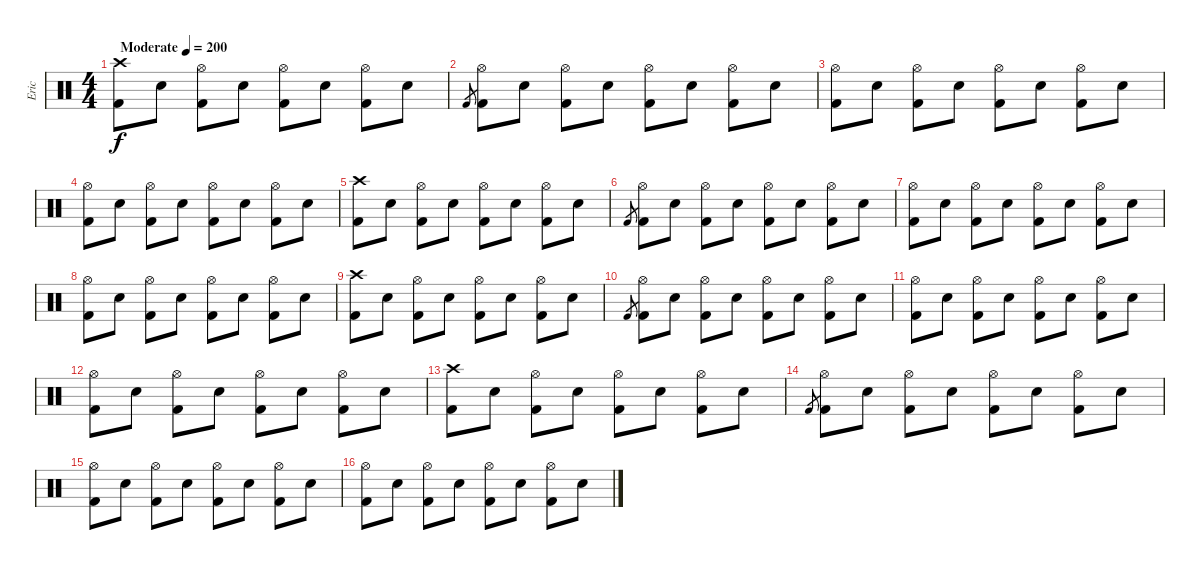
\track ("Eric" "Eric") {instrument percussion}
\staff {score}
\articulation defaults
\ts (4 4)
\tempo (200 "Moderate")
\clef neutral
\ks c
("Crash high (hit)" "Kick (hit) 2").8{dy f} "Electric Snare (hit)".8 ("Hi-Hat (open)" "Kick (hit) 2").8 "Electric Snare (hit)".8 ("Hi-Hat (open)" "Kick (hit) 2").8 "Electric Snare (hit)".8 ("Hi-Hat (open)" "Kick (hit) 2").8 "Electric Snare (hit)".8 |
"Kick (hit) 2".8{gr} ("Hi-Hat (open)" "Kick (hit) 2").8 "Electric Snare (hit)".8 ("Hi-Hat (open)" "Kick (hit) 2").8 "Electric Snare (hit)".8 ("Hi-Hat (open)" "Kick (hit) 2").8 "Electric Snare (hit)".8 ("Hi-Hat (open)" "Kick (hit) 2").8 "Electric Snare (hit)".8 |
("Hi-Hat (open)" "Kick (hit) 2").8 "Electric Snare (hit)".8 ("Hi-Hat (open)" "Kick (hit) 2").8 "Electric Snare (hit)".8 ("Hi-Hat (open)" "Kick (hit) 2").8 "Electric Snare (hit)".8 ("Hi-Hat (open)" "Kick (hit) 2").8 "Electric Snare (hit)".8 |
("Hi-Hat (open)" "Kick (hit) 2").8 "Electric Snare (hit)".8 ("Hi-Hat (open)" "Kick (hit) 2").8 "Electric Snare (hit)".8 ("Hi-Hat (open)" "Kick (hit) 2").8 "Electric Snare (hit)".8 ("Hi-Hat (open)" "Kick (hit) 2").8 "Electric Snare (hit)".8 |
("Crash high (hit)" "Kick (hit) 2").8 "Electric Snare (hit)".8 ("Hi-Hat (open)" "Kick (hit) 2").8 "Electric Snare (hit)".8 ("Hi-Hat (open)" "Kick (hit) 2").8 "Electric Snare (hit)".8 ("Hi-Hat (open)" "Kick (hit) 2").8 "Electric Snare (hit)".8 |
"Kick (hit) 2".8{gr} ("Hi-Hat (open)" "Kick (hit) 2").8 "Electric Snare (hit)".8 ("Hi-Hat (open)" "Kick (hit) 2").8 "Electric Snare (hit)".8 ("Hi-Hat (open)" "Kick (hit) 2").8 "Electric Snare (hit)".8 ("Hi-Hat (open)" "Kick (hit) 2").8 "Electric Snare (hit)".8 |
("Hi-Hat (open)" "Kick (hit) 2").8 "Electric Snare (hit)".8 ("Hi-Hat (open)" "Kick (hit) 2").8 "Electric Snare (hit)".8 ("Hi-Hat (open)" "Kick (hit) 2").8 "Electric Snare (hit)".8 ("Hi-Hat (open)" "Kick (hit) 2").8 "Electric Snare (hit)".8 |
("Hi-Hat (open)" "Kick (hit) 2").8 "Electric Snare (hit)".8 ("Hi-Hat (open)" "Kick (hit) 2").8 "Electric Snare (hit)".8 ("Hi-Hat (open)" "Kick (hit) 2").8 "Electric Snare (hit)".8 ("Hi-Hat (open)" "Kick (hit) 2").8 "Electric Snare (hit)".8 |
("Crash high (hit)" "Kick (hit) 2").8 "Electric Snare (hit)".8 ("Hi-Hat (open)" "Kick (hit) 2").8 "Electric Snare (hit)".8 ("Hi-Hat (open)" "Kick (hit) 2").8 "Electric Snare (hit)".8 ("Hi-Hat (open)" "Kick (hit) 2").8 "Electric Snare (hit)".8 |
"Kick (hit) 2".8{gr} ("Hi-Hat (open)" "Kick (hit) 2").8 "Electric Snare (hit)".8 ("Hi-Hat (open)" "Kick (hit) 2").8 "Electric Snare (hit)".8 ("Hi-Hat (open)" "Kick (hit) 2").8 "Electric Snare (hit)".8 ("Hi-Hat (open)" "Kick (hit) 2").8 "Electric Snare (hit)".8 |
("Hi-Hat (open)" "Kick (hit) 2").8 "Electric Snare (hit)".8 ("Hi-Hat (open)" "Kick (hit) 2").8 "Electric Snare (hit)".8 ("Hi-Hat (open)" "Kick (hit) 2").8 "Electric Snare (hit)".8 ("Hi-Hat (open)" "Kick (hit) 2").8 "Electric Snare (hit)".8 |
("Hi-Hat (open)" "Kick (hit) 2").8 "Electric Snare (hit)".8 ("Hi-Hat (open)" "Kick (hit) 2").8 "Electric Snare (hit)".8 ("Hi-Hat (open)" "Kick (hit) 2").8 "Electric Snare (hit)".8 ("Hi-Hat (open)" "Kick (hit) 2").8 "Electric Snare (hit)".8 |
("Crash high (hit)" "Kick (hit) 2").8 "Electric Snare (hit)".8 ("Hi-Hat (open)" "Kick (hit) 2").8 "Electric Snare (hit)".8 ("Hi-Hat (open)" "Kick (hit) 2").8 "Electric Snare (hit)".8 ("Hi-Hat (open)" "Kick (hit) 2").8 "Electric Snare (hit)".8 |
"Kick (hit) 2".8{gr} ("Hi-Hat (open)" "Kick (hit) 2").8 "Electric Snare (hit)".8 ("Hi-Hat (open)" "Kick (hit) 2").8 "Electric Snare (hit)".8 ("Hi-Hat (open)" "Kick (hit) 2").8 "Electric Snare (hit)".8 ("Hi-Hat (open)" "Kick (hit) 2").8 "Electric Snare (hit)".8 |
("Hi-Hat (open)" "Kick (hit) 2").8 "Electric Snare (hit)".8 ("Hi-Hat (open)" "Kick (hit) 2").8 "Electric Snare (hit)".8 ("Hi-Hat (open)" "Kick (hit) 2").8 "Electric Snare (hit)".8 ("Hi-Hat (open)" "Kick (hit) 2").8 "Electric Snare (hit)".8 |
("Hi-Hat (open)" "Kick (hit) 2").8 "Electric Snare (hit)".8 ("Hi-Hat (open)" "Kick (hit) 2").8 "Electric Snare (hit)".8 ("Hi-Hat (open)" "Kick (hit) 2").8 "Electric Snare (hit)".8 ("Hi-Hat (open)" "Kick (hit) 2").8 "Electric Snare (hit)".8
